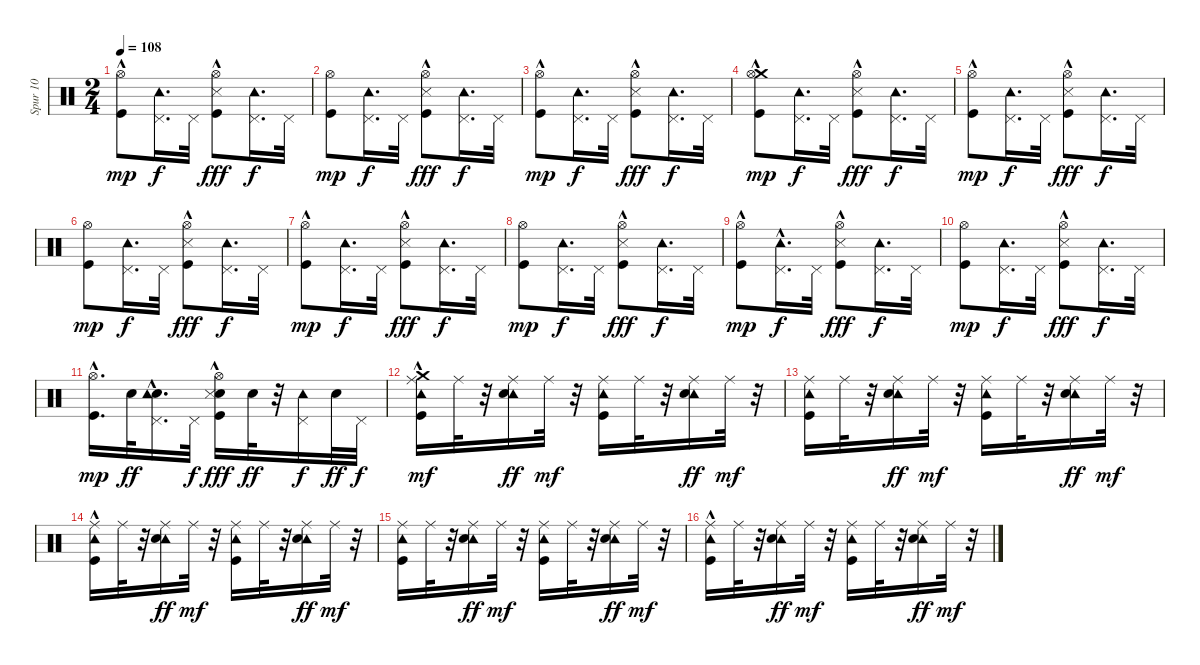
\track ("Spur 10" "Spur 10") {instrument percussion}
\staff {score}
\articulation defaults
\ts (2 4)
\tempo 108
\clef neutral
\ks c
("Hi-Hat (open)"{hac} "Kick (hit)").8{dy mp} ("Tambourine (hit)" "Pedal Hi-Hat (hit)").16{d dy f} "Pedal Hi-Hat (hit)".32 ("Hi-Hat (open)" "Kick (hit)" "Snare (side stick) 3"{hac}).8{dy fff} ("Tambourine (hit)" "Pedal Hi-Hat (hit)").16{d dy f} "Pedal Hi-Hat (hit)".32 |
("Hi-Hat (open)" "Kick (hit)").8{dy mp} ("Tambourine (hit)" "Pedal Hi-Hat (hit)").16{d dy f} "Pedal Hi-Hat (hit)".32 ("Hi-Hat (open)"{hac} "Kick (hit)" "Snare (side stick) 3"{hac}).8{dy fff} ("Tambourine (hit)" "Pedal Hi-Hat (hit)").16{d dy f} "Pedal Hi-Hat (hit)".32 |
("Hi-Hat (open)"{hac} "Kick (hit)").8{dy mp} ("Tambourine (hit)" "Pedal Hi-Hat (hit)").16{d dy f} "Pedal Hi-Hat (hit)".32 ("Hi-Hat (open)" "Kick (hit)" "Snare (side stick) 3"{hac}).8{dy fff} ("Tambourine (hit)" "Pedal Hi-Hat (hit)").16{d dy f} "Pedal Hi-Hat (hit)".32 |
("Crash medium (hit)"{hac} "Hi-Hat (open)" "Kick (hit)").8{dy mp} ("Tambourine (hit)" "Pedal Hi-Hat (hit)").16{d dy f} "Pedal Hi-Hat (hit)".32 ("Hi-Hat (open)"{hac} "Kick (hit)" "Snare (side stick) 3"{hac}).8{dy fff} ("Tambourine (hit)" "Pedal Hi-Hat (hit)").16{d dy f} "Pedal Hi-Hat (hit)".32 |
("Hi-Hat (open)"{hac} "Kick (hit)").8{dy mp} ("Tambourine (hit)" "Pedal Hi-Hat (hit)").16{d dy f} "Pedal Hi-Hat (hit)".32 ("Hi-Hat (open)" "Kick (hit)" "Snare (side stick) 3"{hac}).8{dy fff} ("Tambourine (hit)" "Pedal Hi-Hat (hit)").16{d dy f} "Pedal Hi-Hat (hit)".32 |
("Hi-Hat (open)" "Kick (hit)").8{dy mp} ("Tambourine (hit)" "Pedal Hi-Hat (hit)").16{d dy f} "Pedal Hi-Hat (hit)".32 ("Hi-Hat (open)"{hac} "Kick (hit)" "Snare (side stick) 3"{hac}).8{dy fff} ("Tambourine (hit)" "Pedal Hi-Hat (hit)").16{d dy f} "Pedal Hi-Hat (hit)".32 |
("Hi-Hat (open)"{hac} "Kick (hit)").8{dy mp} ("Tambourine (hit)" "Pedal Hi-Hat (hit)").16{d dy f} "Pedal Hi-Hat (hit)".32 ("Hi-Hat (open)" "Kick (hit)" "Snare (side stick) 3"{hac}).8{dy fff} ("Tambourine (hit)" "Pedal Hi-Hat (hit)").16{d dy f} "Pedal Hi-Hat (hit)".32 |
("Hi-Hat (open)" "Kick (hit)").8{dy mp} ("Tambourine (hit)" "Pedal Hi-Hat (hit)").16{d dy f} "Pedal Hi-Hat (hit)".32 ("Hi-Hat (open)"{hac} "Kick (hit)" "Snare (side stick) 3"{hac}).8{dy fff} ("Tambourine (hit)" "Pedal Hi-Hat (hit)").16{d dy f} "Pedal Hi-Hat (hit)".32 |
("Hi-Hat (open)"{hac} "Kick (hit)").8{dy mp} ("Tambourine (hit)"{hac} "Pedal Hi-Hat (hit)").16{d dy f} "Pedal Hi-Hat (hit)".32 ("Hi-Hat (open)" "Kick (hit)" "Snare (side stick) 3"{hac}).8{dy fff} ("Tambourine (hit)" "Pedal Hi-Hat (hit)").16{d dy f} "Pedal Hi-Hat (hit)".32 |
("Hi-Hat (open)" "Kick (hit)").8{dy mp} ("Tambourine (hit)" "Pedal Hi-Hat (hit)").16{d dy f} "Pedal Hi-Hat (hit)".32 ("Hi-Hat (open)"{hac} "Kick (hit)" "Snare (side stick) 3"{hac}).8{dy fff} ("Tambourine (hit)" "Pedal Hi-Hat (hit)").16{d dy f} "Pedal Hi-Hat (hit)".32 |
("Hi-Hat (open)"{hac} "Kick (hit)").16{d dy mp} "Electric Snare (hit)".32{dy ff} ("Electric Snare (hit)"{hac} "Tambourine (hit)" "Pedal Hi-Hat (hit)").16{d} "Pedal Hi-Hat (hit)".32{dy f} ("Electric Snare (hit)" "Hi-Hat (open)" "Kick (hit)" "Snare (side stick) 3"{hac}).16{dy fff} "Electric Snare (hit)".32{dy ff} r.32 ("Tambourine (hit)" "Pedal Hi-Hat (hit)").16{dy f} "Electric Snare (hit)".32{dy ff} "Pedal Hi-Hat (hit)".32{dy f} |
("Crash medium (hit)" "Tambourine (hit)" "Ride (middle)" "Kick (hit)"{hac}).16{dy mf} "Ride (middle)".32 r.32 ("Tambourine (hit)" "Ride (middle)" "Electric Snare (hit)").16{dy ff} "Ride (middle)".32{dy mf} r.32 ("Tambourine (hit)" "Ride (middle)" "Kick (hit)").16 "Ride (middle)".32 r.32 ("Tambourine (hit)" "Ride (middle)" "Electric Snare (hit)").16{dy ff} "Ride (middle)".32{dy mf} r.32 |
("Tambourine (hit)" "Ride (middle)" "Kick (hit)").16 "Ride (middle)".32 r.32 ("Tambourine (hit)" "Ride (middle)" "Electric Snare (hit)").16{dy ff} "Ride (middle)".32{dy mf} r.32 ("Tambourine (hit)" "Ride (middle)" "Kick (hit)").16 "Ride (middle)".32 r.32 ("Tambourine (hit)" "Ride (middle)" "Electric Snare (hit)").16{dy ff} "Ride (middle)".32{dy mf} r.32 |
("Tambourine (hit)" "Ride (middle)" "Kick (hit)"{hac}).16 "Ride (middle)".32 r.32 ("Tambourine (hit)" "Ride (middle)" "Electric Snare (hit)").16{dy ff} "Ride (middle)".32{dy mf} r.32 ("Tambourine (hit)" "Ride (middle)" "Kick (hit)").16 "Ride (middle)".32 r.32 ("Tambourine (hit)" "Ride (middle)" "Electric Snare (hit)").16{dy ff} "Ride (middle)".32{dy mf} r.32 |
("Tambourine (hit)" "Ride (middle)" "Kick (hit)").16 "Ride (middle)".32 r.32 ("Tambourine (hit)" "Ride (middle)" "Electric Snare (hit)").16{dy ff} "Ride (middle)".32{dy mf} r.32 ("Tambourine (hit)" "Ride (middle)" "Kick (hit)").16 "Ride (middle)".32 r.32 ("Tambourine (hit)" "Ride (middle)" "Electric Snare (hit)").16{dy ff} "Ride (middle)".32{dy mf} r.32 |
("Tambourine (hit)" "Ride (middle)" "Kick (hit)"{hac}).16 "Ride (middle)".32 r.32 ("Tambourine (hit)" "Ride (middle)" "Electric Snare (hit)").16{dy ff} "Ride (middle)".32{dy mf} r.32 ("Tambourine (hit)" "Ride (middle)" "Kick (hit)").16 "Ride (middle)".32 r.32 ("Tambourine (hit)" "Ride (middle)" "Electric Snare (hit)").16{dy ff} "Ride (middle)".32{dy mf} r.32
